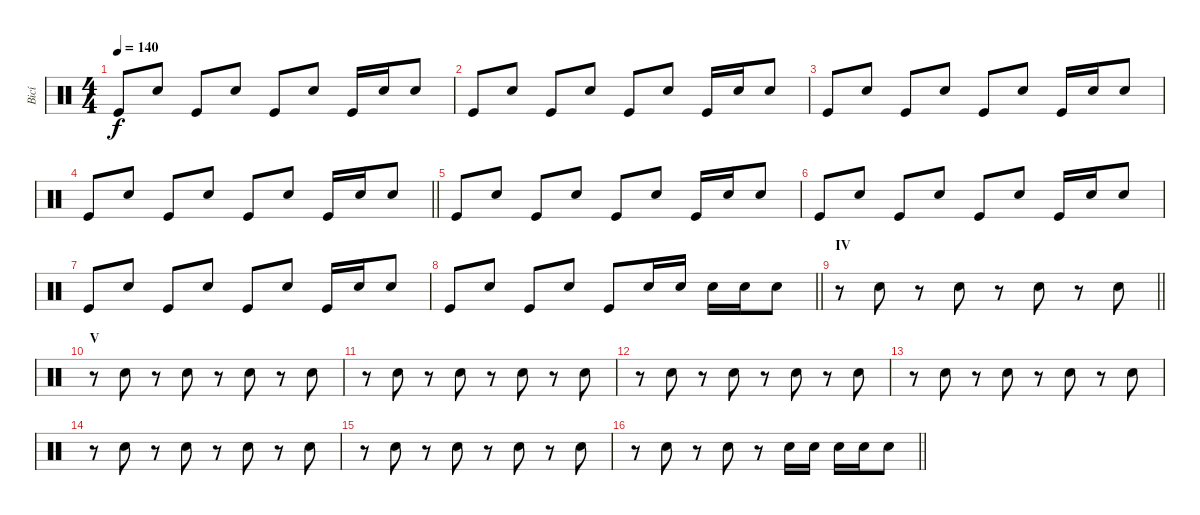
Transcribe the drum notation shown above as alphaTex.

\track ("Bicí" "Bicí") {instrument percussion}
\staff {score}
\articulation defaults
\ts (4 4)
\tempo 140
\clef neutral
\ks c "Kick (hit)".8{dy f} "Electric Snare (hit)".8 "Kick (hit)".8 "Electric Snare (hit)".8 "Kick (hit)".8 "Electric Snare (hit)".8 "Kick (hit)".16 "Electric Snare (hit)".16 "Electric Snare (hit)".8
|
"Kick (hit)".8 "Electric Snare (hit)".8 "Kick (hit)".8 "Electric Snare (hit)".8 "Kick (hit)".8 "Electric Snare (hit)".8 "Kick (hit)".16 "Electric Snare (hit)".16 "Electric Snare (hit)".8 |
"Kick (hit)".8 "Electric Snare (hit)".8 "Kick (hit)".8 "Electric Snare (hit)".8 "Kick (hit)".8 "Electric Snare (hit)".8 "Kick (hit)".16 "Electric Snare (hit)".16 "Electric Snare (hit)".8 |
\barLineRight lightlight "Kick (hit)".8 "Electric Snare (hit)".8 "Kick (hit)".8 "Electric Snare (hit)".8 "Kick (hit)".8 "Electric Snare (hit)".8 "Kick (hit)".16 "Electric Snare (hit)".16 "Electric Snare (hit)".8
|
"Kick (hit)".8 "Electric Snare (hit)".8 "Kick (hit)".8 "Electric Snare (hit)".8 "Kick (hit)".8 "Electric Snare (hit)".8 "Kick (hit)".16 "Electric Snare (hit)".16 "Electric Snare (hit)".8 |
"Kick (hit)".8 "Electric Snare (hit)".8 "Kick (hit)".8 "Electric Snare (hit)".8 "Kick (hit)".8 "Electric Snare (hit)".8 "Kick (hit)".16 "Electric Snare (hit)".16 "Electric Snare (hit)".8 |
"Kick (hit)".8 "Electric Snare (hit)".8 "Kick (hit)".8 "Electric Snare (hit)".8 "Kick (hit)".8 "Electric Snare (hit)".8 "Kick (hit)".16 "Electric Snare (hit)".16 "Electric Snare (hit)".8 |
\barLineRight lightlight "Kick (hit)".8 "Electric Snare (hit)".8 "Kick (hit)".8 "Electric Snare (hit)".8 "Kick (hit)".8 "Electric Snare (hit)".16 "Electric Snare (hit)".16 "Electric Snare (hit)".16 "Electric Snare (hit)".16 "Electric Snare (hit)".8
|
\section ("" "IV")
\barLineRight lightlight
r.8 "Electric Snare (hit)".8 r.8 "Electric Snare (hit)".8 r.8 "Electric Snare (hit)".8 r.8 "Electric Snare (hit)".8 |
\section ("" "V")
r.8 "Electric Snare (hit)".8 r.8 "Electric Snare (hit)".8 r.8 "Electric Snare (hit)".8 r.8 "Electric Snare (hit)".8 |
r.8 "Electric Snare (hit)".8 r.8 "Electric Snare (hit)".8 r.8 "Electric Snare (hit)".8 r.8 "Electric Snare (hit)".8 |
r.8 "Electric Snare (hit)".8 r.8 "Electric Snare (hit)".8 r.8 "Electric Snare (hit)".8 r.8 "Electric Snare (hit)".8 |
r.8 "Electric Snare (hit)".8 r.8 "Electric Snare (hit)".8 r.8 "Electric Snare (hit)".8 r.8 "Electric Snare (hit)".8 |
r.8 "Electric Snare (hit)".8 r.8 "Electric Snare (hit)".8 r.8 "Electric Snare (hit)".8 r.8 "Electric Snare (hit)".8 |
r.8 "Electric Snare (hit)".8 r.8 "Electric Snare (hit)".8 r.8 "Electric Snare (hit)".8 r.8 "Electric Snare (hit)".8 |
\barLineRight lightlight
r.8 "Electric Snare (hit)".8 r.8 "Electric Snare (hit)".8 r.8 "Electric Snare (hit)".16 "Electric Snare (hit)".16 "Electric Snare (hit)".16 "Electric Snare (hit)".16 "Electric Snare (hit)".8
